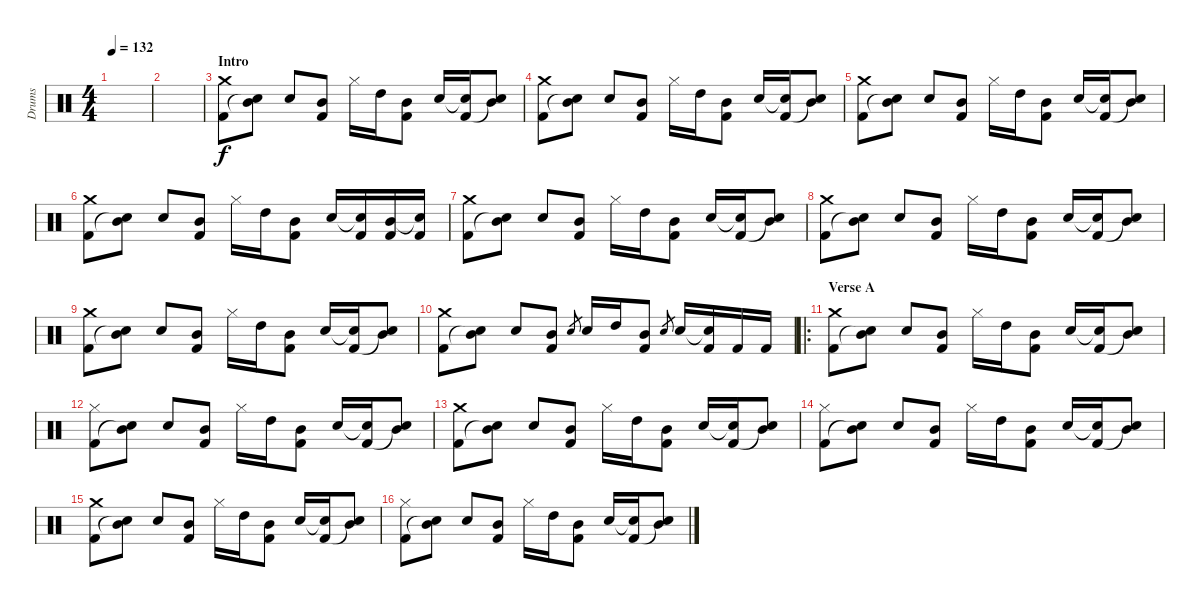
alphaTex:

\track ("Drums" "Drums") {instrument percussion}
\staff {score}
\articulation defaults
\ts (4 4)
\tempo 132
\clef neutral
\ks c
|
|
\section ("" "Intro")
("Crash medium (hit)" "Kick (hit) 2").8 ("Mid Tom (hit)" "Snare (hit)"{t}).8 "Electric Snare (hit)".8 ("Mid Tom (hit)" "Kick (hit) 2").8 "Hi-Hat (closed)".16 "High Tom (hit)".16 ("Mid Tom (hit)" "Kick (hit) 2").8 "Electric Snare (hit)".16 ("Snare (hit)"{t} "Kick (hit) 2").16 ("Mid Tom (hit)" "Snare (hit)"{t}).8 |
("Crash medium (hit)" "Kick (hit) 2").8 ("Mid Tom (hit)" "Snare (hit)"{t}).8 "Electric Snare (hit)".8 ("Mid Tom (hit)" "Kick (hit) 2").8 "Hi-Hat (closed)".16 "High Tom (hit)".16 ("Mid Tom (hit)" "Kick (hit) 2").8 "Electric Snare (hit)".16 ("Snare (hit)"{t} "Kick (hit) 2").16 ("Mid Tom (hit)" "Snare (hit)"{t}).8 |
("Crash medium (hit)" "Kick (hit) 2").8 ("Mid Tom (hit)" "Snare (hit)"{t}).8 "Electric Snare (hit)".8 ("Mid Tom (hit)" "Kick (hit) 2").8 "Hi-Hat (closed)".16 "High Tom (hit)".16 ("Mid Tom (hit)" "Kick (hit) 2").8 "Electric Snare (hit)".16 ("Snare (hit)"{t} "Kick (hit) 2").16 ("Mid Tom (hit)" "Snare (hit)"{t}).8 |
("Crash medium (hit)" "Kick (hit) 2").8 ("Mid Tom (hit)" "Snare (hit)"{t}).8 "Electric Snare (hit)".8 ("Mid Tom (hit)" "Kick (hit) 2").8 "Hi-Hat (closed)".16 "High Tom (hit)".16 ("Mid Tom (hit)" "Kick (hit) 2").8 "Electric Snare (hit)".16 ("Snare (hit)"{t} "Kick (hit) 2").16 ("Mid Tom (hit)" "Kick (hit) 2").16 ("Snare (hit)"{t} "Kick (hit) 2").16 |
("Crash medium (hit)" "Kick (hit) 2").8 ("Mid Tom (hit)" "Snare (hit)"{t}).8 "Electric Snare (hit)".8 ("Mid Tom (hit)" "Kick (hit) 2").8 "Hi-Hat (closed)".16 "High Tom (hit)".16 ("Mid Tom (hit)" "Kick (hit) 2").8 "Electric Snare (hit)".16 ("Snare (hit)"{t} "Kick (hit) 2").16 ("Mid Tom (hit)" "Snare (hit)"{t}).8 |
("Crash medium (hit)" "Kick (hit) 2").8 ("Mid Tom (hit)" "Snare (hit)"{t}).8 "Electric Snare (hit)".8 ("Mid Tom (hit)" "Kick (hit) 2").8 "Hi-Hat (closed)".16 "High Tom (hit)".16 ("Mid Tom (hit)" "Kick (hit) 2").8 "Electric Snare (hit)".16 ("Snare (hit)"{t} "Kick (hit) 2").16 ("Mid Tom (hit)" "Snare (hit)"{t}).8 |
("Crash medium (hit)" "Kick (hit) 2").8 ("Mid Tom (hit)" "Snare (hit)"{t}).8 "Electric Snare (hit)".8 ("Mid Tom (hit)" "Kick (hit) 2").8 "Hi-Hat (closed)".16 "High Tom (hit)".16 ("Mid Tom (hit)" "Kick (hit) 2").8 "Electric Snare (hit)".16 ("Snare (hit)"{t} "Kick (hit) 2").16 ("Mid Tom (hit)" "Snare (hit)"{t}).8 |
("Crash medium (hit)" "Kick (hit) 2").8 ("Mid Tom (hit)" "Snare (hit)"{t}).8 "Electric Snare (hit)".8 ("Mid Tom (hit)" "Kick (hit) 2").8 "Electric Snare (hit)".8{gr} "Electric Snare (hit)".16 "High Tom (hit)".16 ("Mid Tom (hit)" "Kick (hit) 2").8 "Electric Snare (hit)".8{gr} "Electric Snare (hit)".16 ("Snare (hit)"{t} "Kick (hit) 2").16 "Kick (hit) 2".16 "Kick (hit) 2".16 |
\ro
\section ("" "Verse A")
("Crash medium (hit)" "Kick (hit) 2").8 ("Mid Tom (hit)" "Snare (hit)"{t}).8 "Electric Snare (hit)".8 ("Mid Tom (hit)" "Kick (hit) 2").8 "Hi-Hat (closed)".16 "High Tom (hit)".16 ("Mid Tom (hit)" "Kick (hit) 2").8 "Electric Snare (hit)".16 ("Snare (hit)"{t} "Kick (hit) 2").16 ("Mid Tom (hit)" "Snare (hit)"{t}).8 |
("Hi-Hat (closed)" "Kick (hit) 2").8 ("Mid Tom (hit)" "Snare (hit)"{t}).8 "Electric Snare (hit)".8 ("Mid Tom (hit)" "Kick (hit) 2").8 "Hi-Hat (closed)".16 "High Tom (hit)".16 ("Mid Tom (hit)" "Kick (hit) 2").8 "Electric Snare (hit)".16 ("Snare (hit)"{t} "Kick (hit) 2").16 ("Mid Tom (hit)" "Snare (hit)"{t}).8 |
("Crash medium (hit)" "Kick (hit) 2").8 ("Mid Tom (hit)" "Snare (hit)"{t}).8 "Electric Snare (hit)".8 ("Mid Tom (hit)" "Kick (hit) 2").8 "Hi-Hat (closed)".16 "High Tom (hit)".16 ("Mid Tom (hit)" "Kick (hit) 2").8 "Electric Snare (hit)".16 ("Snare (hit)"{t} "Kick (hit) 2").16 ("Mid Tom (hit)" "Snare (hit)"{t}).8 |
("Hi-Hat (closed)" "Kick (hit) 2").8 ("Mid Tom (hit)" "Snare (hit)"{t}).8 "Electric Snare (hit)".8 ("Mid Tom (hit)" "Kick (hit) 2").8 "Hi-Hat (closed)".16 "High Tom (hit)".16 ("Mid Tom (hit)" "Kick (hit) 2").8 "Electric Snare (hit)".16 ("Snare (hit)"{t} "Kick (hit) 2").16 ("Mid Tom (hit)" "Snare (hit)"{t}).8 |
("Crash medium (hit)" "Kick (hit) 2").8 ("Mid Tom (hit)" "Snare (hit)"{t}).8 "Electric Snare (hit)".8 ("Mid Tom (hit)" "Kick (hit) 2").8 "Hi-Hat (closed)".16 "High Tom (hit)".16 ("Mid Tom (hit)" "Kick (hit) 2").8 "Electric Snare (hit)".16 ("Snare (hit)"{t} "Kick (hit) 2").16 ("Mid Tom (hit)" "Snare (hit)"{t}).8 |
("Hi-Hat (closed)" "Kick (hit) 2").8 ("Mid Tom (hit)" "Snare (hit)"{t}).8 "Electric Snare (hit)".8 ("Mid Tom (hit)" "Kick (hit) 2").8 "Hi-Hat (closed)".16 "High Tom (hit)".16 ("Mid Tom (hit)" "Kick (hit) 2").8 "Electric Snare (hit)".16 ("Snare (hit)"{t} "Kick (hit) 2").16 ("Mid Tom (hit)" "Snare (hit)"{t}).8
